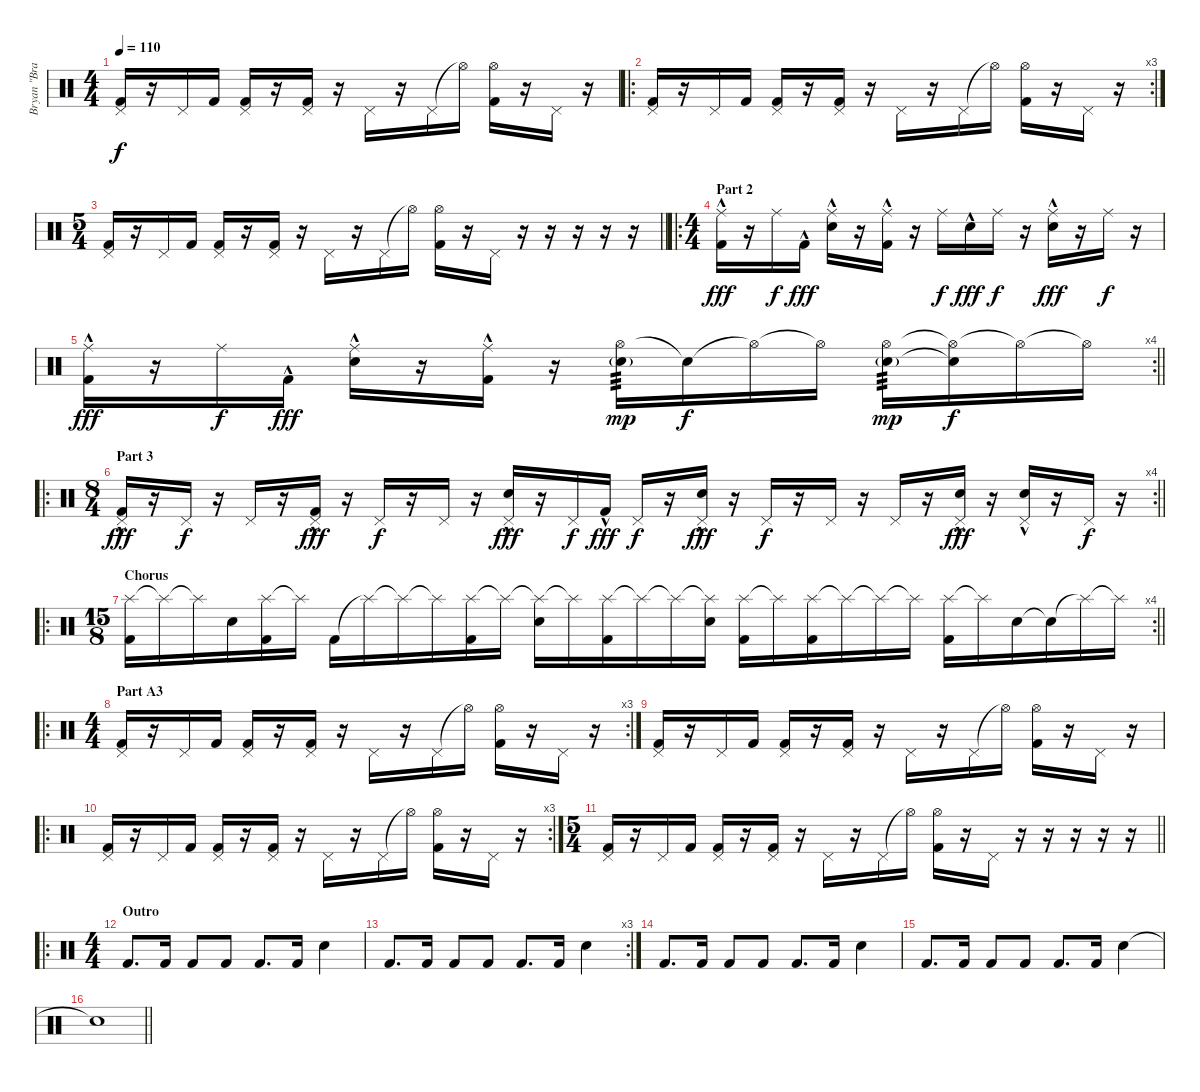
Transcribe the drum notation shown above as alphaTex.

\track ("Bryan \"Brain\" Mantia" "Bryan \"Bra") {instrument percussion}
\staff {score}
\articulation defaults
\ts (4 4)
\tempo 110
\clef neutral
\ks c
("Pedal Hi-Hat (hit)" "Kick (hit) 2").16{dy f} r.16 "Pedal Hi-Hat (hit)".16 "Kick (hit) 2".16 ("Pedal Hi-Hat (hit)" "Kick (hit) 2").16 r.16 ("Pedal Hi-Hat (hit)" "Kick (hit) 2").16 r.16 "Pedal Hi-Hat (hit)".16 r.16 "Pedal Hi-Hat (hit)".16 "Hi-Hat (open)"{t}.16 ("Hi-Hat (open)" "Kick (hit) 2").16 r.16 "Pedal Hi-Hat (hit)".16 r.16 |
\ro
\rc 3
("Pedal Hi-Hat (hit)" "Kick (hit) 2").16 r.16 "Pedal Hi-Hat (hit)".16 "Kick (hit) 2".16 ("Pedal Hi-Hat (hit)" "Kick (hit) 2").16 r.16 ("Pedal Hi-Hat (hit)" "Kick (hit) 2").16 r.16 "Pedal Hi-Hat (hit)".16 r.16 "Pedal Hi-Hat (hit)".16 "Hi-Hat (open)"{t}.16 ("Hi-Hat (open)" "Kick (hit) 2").16 r.16 "Pedal Hi-Hat (hit)".16 r.16 |
\ts (5 4)
\barLineRight lightlight
("Pedal Hi-Hat (hit)" "Kick (hit) 2").16 r.16 "Pedal Hi-Hat (hit)".16 "Kick (hit) 2".16 ("Pedal Hi-Hat (hit)" "Kick (hit) 2").16 r.16 ("Pedal Hi-Hat (hit)" "Kick (hit) 2").16 r.16 "Pedal Hi-Hat (hit)".16 r.16 "Pedal Hi-Hat (hit)".16 "Hi-Hat (open)"{t}.16 ("Hi-Hat (open)" "Kick (hit) 2").16 r.16 "Pedal Hi-Hat (hit)".16 r.16 r.16 r.16 r.16 r.16 |
\ro
\ts (4 4)
\section ("" "Part 2")
("Ride (middle)" "Kick (hit) 2"{hac}).16{dy fff} r.16 "Ride (middle)".16{dy f} "Kick (hit) 2"{hac}.16{dy fff} ("Ride (middle)" "Snare (hit) 2"{hac}).16 r.16 ("Ride (middle)" "Kick (hit) 2"{hac}).16 r.16 "Ride (middle)".16{dy f} "Snare (hit) 2"{hac}.16{dy fff} "Ride (middle)".16{dy f} r.16 ("Ride (middle)" "Snare (hit) 2"{hac}).16{dy fff} r.16 "Ride (middle)".16{dy f} r.16 |
\rc 4
\barLineRight lightlight
("Ride (middle)" "Kick (hit) 2"{hac}).16{dy fff} r.16 "Ride (middle)".16{dy f} "Kick (hit) 2"{hac}.16{dy fff} ("Ride (middle)" "Snare (hit) 2"{hac}).16 r.16 ("Ride (middle)" "Kick (hit) 2"{hac}).16 r.16 ("Hi-Hat (open)" "Snare (hit) 2"{g}).16{tp 3 dy mp} "Snare (hit) 2"{t}.16{dy f} "Hi-Hat (open)"{t}.16 "Hi-Hat (open)"{t}.16 ("Hi-Hat (open)" "Snare (hit) 2"{g}).16{tp 3 dy mp} ("Hi-Hat (open)"{t} "Snare (hit) 2"{t}).16{dy f} "Hi-Hat (open)"{t}.16 "Hi-Hat (open)"{t}.16 |
\ro
\rc 4
\ts (8 4)
\section ("" "Part 3")
\barLineRight lightlight
("Pedal Hi-Hat (hit)" "Kick (hit) 2"{hac}).16{dy fff} r.16 "Pedal Hi-Hat (hit)".16{dy f} r.16 "Pedal Hi-Hat (hit)".16 r.16 ("Pedal Hi-Hat (hit)" "Kick (hit) 2"{hac}).16{dy fff} r.16 "Pedal Hi-Hat (hit)".16{dy f} r.16 "Pedal Hi-Hat (hit)".16 r.16 ("Pedal Hi-Hat (hit)" "Snare (hit) 2"{hac}).16{dy fff} r.16 "Pedal Hi-Hat (hit)".16{dy f} "Kick (hit) 2"{hac}.16{dy fff} "Pedal Hi-Hat (hit)".16{dy f} r.16 ("Pedal Hi-Hat (hit)" "Snare (hit) 2"{hac}).16{dy fff} r.16 "Pedal Hi-Hat (hit)".16{dy f} r.16 "Pedal Hi-Hat (hit)".16 r.16 "Pedal Hi-Hat (hit)".16 r.16 ("Pedal Hi-Hat (hit)" "Snare (hit) 2"{hac}).16{dy fff} r.16 ("Pedal Hi-Hat (hit)" "Snare (hit) 2"{hac}).16 r.16 "Pedal Hi-Hat (hit)".16{dy f} r.16 |
\ro
\rc 4
\ts (15 8)
\section ("" "Chorus")
\barLineRight lightlight
("Splash (hit)" "Kick (hit) 2").16 "Splash (hit)"{t}.16 "Splash (hit)"{t}.16 "Snare (hit) 2".16 ("Splash (hit)" "Kick (hit) 2").16 "Splash (hit)"{t}.16 "Kick (hit) 2".16 "Splash (hit)"{t}.16 "Splash (hit)"{t}.16 "Splash (hit)"{t}.16 ("Splash (hit)" "Kick (hit) 2").16 "Splash (hit)"{t}.16 ("Splash (hit)"{t} "Snare (hit) 2").16 "Splash (hit)"{t}.16 ("Splash (hit)" "Kick (hit) 2").16 "Splash (hit)"{t}.16 "Splash (hit)"{t}.16 ("Splash (hit)"{t} "Snare (hit) 2").16 ("Splash (hit)" "Kick (hit) 2").16 "Splash (hit)"{t}.16 ("Splash (hit)" "Kick (hit) 2").16 "Splash (hit)"{t}.16 "Splash (hit)"{t}.16 "Splash (hit)"{t}.16 ("Splash (hit)" "Kick (hit) 2").16 "Splash (hit)"{t}.16 "Snare (hit) 2".16 "Snare (hit) 2"{t}.16 "Splash (hit)"{t}.16 "Splash (hit)"{t}.16 |
\ro
\rc 3
\ts (4 4)
\section ("" "Part A3")
("Pedal Hi-Hat (hit)" "Kick (hit) 2").16 r.16 "Pedal Hi-Hat (hit)".16 "Kick (hit) 2".16 ("Pedal Hi-Hat (hit)" "Kick (hit) 2").16 r.16 ("Pedal Hi-Hat (hit)" "Kick (hit) 2").16 r.16 "Pedal Hi-Hat (hit)".16 r.16 "Pedal Hi-Hat (hit)".16 "Hi-Hat (open)"{t}.16 ("Hi-Hat (open)" "Kick (hit) 2").16 r.16 "Pedal Hi-Hat (hit)".16 r.16 |
("Pedal Hi-Hat (hit)" "Kick (hit) 2").16 r.16 "Pedal Hi-Hat (hit)".16 "Kick (hit) 2".16 ("Pedal Hi-Hat (hit)" "Kick (hit) 2").16 r.16 ("Pedal Hi-Hat (hit)" "Kick (hit) 2").16 r.16 "Pedal Hi-Hat (hit)".16 r.16 "Pedal Hi-Hat (hit)".16 "Hi-Hat (open)"{t}.16 ("Hi-Hat (open)" "Kick (hit) 2").16 r.16 "Pedal Hi-Hat (hit)".16 r.16 |
\ro
\rc 3
("Pedal Hi-Hat (hit)" "Kick (hit) 2").16 r.16 "Pedal Hi-Hat (hit)".16 "Kick (hit) 2".16 ("Pedal Hi-Hat (hit)" "Kick (hit) 2").16 r.16 ("Pedal Hi-Hat (hit)" "Kick (hit) 2").16 r.16 "Pedal Hi-Hat (hit)".16 r.16 "Pedal Hi-Hat (hit)".16 "Hi-Hat (open)"{t}.16 ("Hi-Hat (open)" "Kick (hit) 2").16 r.16 "Pedal Hi-Hat (hit)".16 r.16 |
\ts (5 4)
\barLineRight lightlight
("Pedal Hi-Hat (hit)" "Kick (hit) 2").16 r.16 "Pedal Hi-Hat (hit)".16 "Kick (hit) 2".16 ("Pedal Hi-Hat (hit)" "Kick (hit) 2").16 r.16 ("Pedal Hi-Hat (hit)" "Kick (hit) 2").16 r.16 "Pedal Hi-Hat (hit)".16 r.16 "Pedal Hi-Hat (hit)".16 "Hi-Hat (open)"{t}.16 ("Hi-Hat (open)" "Kick (hit) 2").16 r.16 "Pedal Hi-Hat (hit)".16 r.16 r.16 r.16 r.16 r.16 |
\ro
\ts (4 4)
\section ("" "Outro")
"Kick (hit) 2".8{d} "Kick (hit) 2".16{balance 0} "Kick (hit) 2".8{balance 16} "Kick (hit) 2".8{balance 8} "Kick (hit) 2".8{d} "Kick (hit) 2".16 "Snare (hit) 2".4 |
\rc 3 "Kick (hit) 2".8{d} "Kick (hit) 2".16{balance 0} "Kick (hit) 2".8{balance 16} "Kick (hit) 2".8{balance 8} "Kick (hit) 2".8{d} "Kick (hit) 2".16 "Snare (hit) 2".4
|
"Kick (hit) 2".8{d} "Kick (hit) 2".16{balance 0} "Kick (hit) 2".8{balance 16} "Kick (hit) 2".8{balance 8} "Kick (hit) 2".8{d} "Kick (hit) 2".16 "Snare (hit) 2".4 |
"Kick (hit) 2".8{d} "Kick (hit) 2".16{balance 0} "Kick (hit) 2".8{balance 16} "Kick (hit) 2".8{balance 8} "Kick (hit) 2".8{d} "Kick (hit) 2".16 "Snare (hit) 2".4 |
\barLineRight lightlight "Snare (hit) 2"{t}.1
